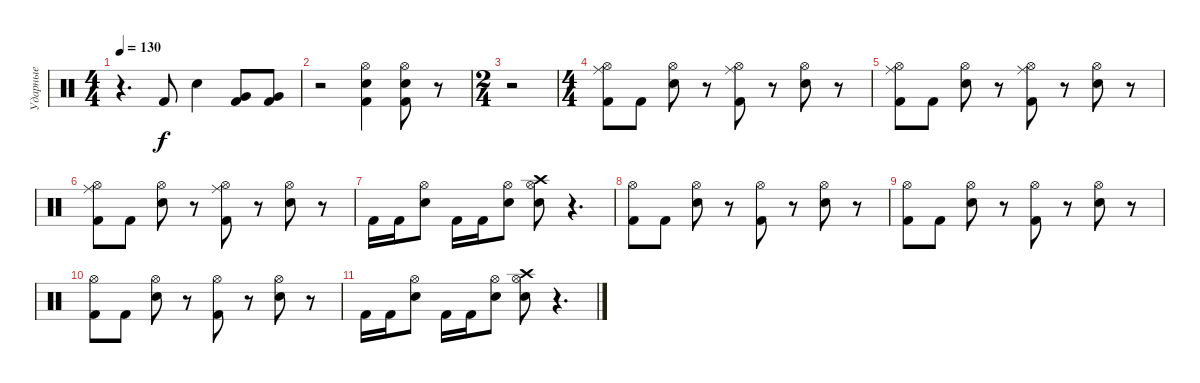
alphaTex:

\track ("Ударные" "Ударные") {instrument percussion}
\staff {score}
\articulation defaults
\ts (4 4)
\tempo 130
\clef neutral
\ks c
r.4{d dy f} "Kick (hit) 2".8 "Snare (hit) 2".4 ("Kick (hit) 2" "Very Low Tom (hit)").8 ("Kick (hit) 2" "Very Low Tom (hit)").8 |
r.2 ("Hi-Hat (open)" "Kick (hit) 2" "Snare (hit) 2").4 ("Hi-Hat (open)" "Kick (hit) 2" "Snare (hit) 2").8 r.8 |
\ts (2 4)
r.2 |
\ts (4 4)
("Hi-Hat (open)" "Ride (middle)" "Kick (hit) 2").8 "Kick (hit) 2".8 ("Hi-Hat (open)" "Snare (hit) 2").8 r.8 ("Hi-Hat (open)" "Ride (middle)" "Kick (hit) 2").8 r.8 ("Hi-Hat (open)" "Snare (hit) 2").8 r.8 |
("Hi-Hat (open)" "Ride (middle)" "Kick (hit) 2").8 "Kick (hit) 2".8 ("Hi-Hat (open)" "Snare (hit) 2").8 r.8 ("Hi-Hat (open)" "Ride (middle)" "Kick (hit) 2").8 r.8 ("Hi-Hat (open)" "Snare (hit) 2").8 r.8 |
("Hi-Hat (open)" "Ride (middle)" "Kick (hit) 2").8 "Kick (hit) 2".8 ("Hi-Hat (open)" "Snare (hit) 2").8 r.8 ("Hi-Hat (open)" "Ride (middle)" "Kick (hit) 2").8 r.8 ("Hi-Hat (open)" "Snare (hit) 2").8 r.8 |
"Kick (hit) 2".16 "Kick (hit) 2".16 ("Hi-Hat (open)" "Snare (hit) 2").8 "Kick (hit) 2".16 "Kick (hit) 2".16 ("Hi-Hat (open)" "Snare (hit) 2").8 ("Hi-Hat (open)" "Crash high (hit)" "Snare (hit) 2").8 r.4{d} |
("Hi-Hat (open)" "Kick (hit) 2").8 "Kick (hit) 2".8 ("Hi-Hat (open)" "Snare (hit) 2").8 r.8 ("Hi-Hat (open)" "Kick (hit) 2").8 r.8 ("Hi-Hat (open)" "Snare (hit) 2").8 r.8 |
("Hi-Hat (open)" "Kick (hit) 2").8 "Kick (hit) 2".8 ("Hi-Hat (open)" "Snare (hit) 2").8 r.8 ("Hi-Hat (open)" "Kick (hit) 2").8 r.8 ("Hi-Hat (open)" "Snare (hit) 2").8 r.8 |
("Hi-Hat (open)" "Kick (hit) 2").8 "Kick (hit) 2".8 ("Hi-Hat (open)" "Snare (hit) 2").8 r.8 ("Hi-Hat (open)" "Kick (hit) 2").8 r.8 ("Hi-Hat (open)" "Snare (hit) 2").8 r.8 |
"Kick (hit) 2".16 "Kick (hit) 2".16 ("Hi-Hat (open)" "Snare (hit) 2").8 "Kick (hit) 2".16 "Kick (hit) 2".16 ("Hi-Hat (open)" "Snare (hit) 2").8 ("Hi-Hat (open)" "Crash high (hit)" "Snare (hit) 2").8 r.4{d}
